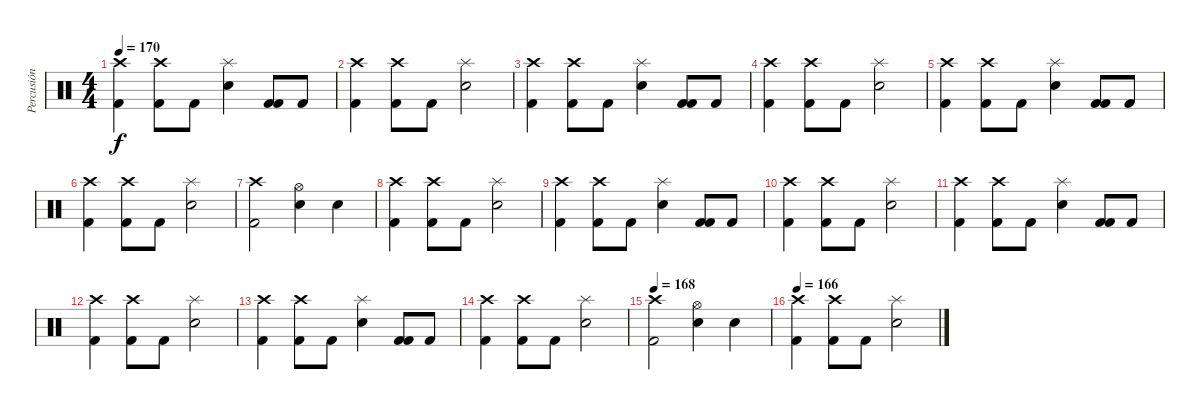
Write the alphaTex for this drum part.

\track ("Percusión" "Percusión") {instrument percussion}
\staff {score}
\articulation defaults
\ts (4 4)
\tempo 170
\clef neutral
\ks c
("Kick (hit) 2" "Crash high (hit)").4{dy f} ("Kick (hit) 2" "Crash high (hit)").8 "Kick (hit) 2".8 ("Splash (hit)" "Snare (hit) 2").4 ("Kick (hit) 2" "Kick (hit) 2").8 "Kick (hit) 2".8 |
("Kick (hit) 2" "Crash high (hit)").4 ("Kick (hit) 2" "Crash high (hit)").8 "Kick (hit) 2".8 ("Splash (hit)" "Snare (hit) 2").2 |
("Kick (hit) 2" "Crash high (hit)").4 ("Kick (hit) 2" "Crash high (hit)").8 "Kick (hit) 2".8 ("Splash (hit)" "Snare (hit) 2").4 ("Kick (hit) 2" "Kick (hit) 2").8 "Kick (hit) 2".8 |
("Kick (hit) 2" "Crash high (hit)").4 ("Kick (hit) 2" "Crash high (hit)").8 "Kick (hit) 2".8 ("Splash (hit)" "Snare (hit) 2").2 |
("Kick (hit) 2" "Crash high (hit)").4 ("Kick (hit) 2" "Crash high (hit)").8 "Kick (hit) 2".8 ("Splash (hit)" "Snare (hit) 2").4 ("Kick (hit) 2" "Kick (hit) 2").8 "Kick (hit) 2".8 |
("Kick (hit) 2" "Crash high (hit)").4 ("Kick (hit) 2" "Crash high (hit)").8 "Kick (hit) 2".8 ("Splash (hit)" "Snare (hit) 2").2 |
("Kick (hit) 2" "Crash high (hit)").2 ("Snare (hit) 2" "Hi-Hat (open)").4 "Snare (hit) 2".4 |
("Kick (hit) 2" "Crash high (hit)").4 ("Kick (hit) 2" "Crash high (hit)").8 "Kick (hit) 2".8 ("Splash (hit)" "Snare (hit) 2").2 |
("Kick (hit) 2" "Crash high (hit)").4 ("Kick (hit) 2" "Crash high (hit)").8 "Kick (hit) 2".8 ("Splash (hit)" "Snare (hit) 2").4 ("Kick (hit) 2" "Kick (hit) 2").8 "Kick (hit) 2".8 |
("Kick (hit) 2" "Crash high (hit)").4 ("Kick (hit) 2" "Crash high (hit)").8 "Kick (hit) 2".8 ("Splash (hit)" "Snare (hit) 2").2 |
("Kick (hit) 2" "Crash high (hit)").4 ("Kick (hit) 2" "Crash high (hit)").8 "Kick (hit) 2".8 ("Splash (hit)" "Snare (hit) 2").4 ("Kick (hit) 2" "Kick (hit) 2").8 "Kick (hit) 2".8 |
("Kick (hit) 2" "Crash high (hit)").4 ("Kick (hit) 2" "Crash high (hit)").8 "Kick (hit) 2".8 ("Splash (hit)" "Snare (hit) 2").2 |
("Kick (hit) 2" "Crash high (hit)").4 ("Kick (hit) 2" "Crash high (hit)").8 "Kick (hit) 2".8 ("Splash (hit)" "Snare (hit) 2").4 ("Kick (hit) 2" "Kick (hit) 2").8 "Kick (hit) 2".8 |
("Kick (hit) 2" "Crash high (hit)").4 ("Kick (hit) 2" "Crash high (hit)").8 "Kick (hit) 2".8 ("Splash (hit)" "Snare (hit) 2").2 |
\tempo 168
("Kick (hit) 2" "Crash high (hit)").2 ("Snare (hit) 2" "Hi-Hat (open)").4 "Snare (hit) 2".4 |
\tempo 166
("Kick (hit) 2" "Crash high (hit)").4 ("Kick (hit) 2" "Crash high (hit)").8 "Kick (hit) 2".8 ("Splash (hit)" "Snare (hit) 2").2
